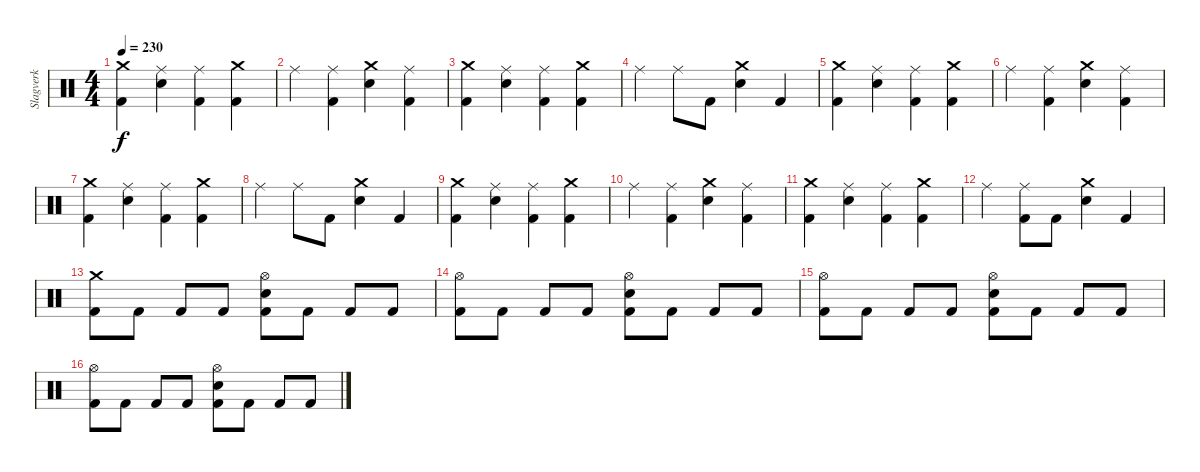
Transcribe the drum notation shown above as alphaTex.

\track ("Slagverk" "Slagverk") {instrument percussion}
\staff {score}
\articulation defaults
\ts (4 4)
\tempo 230
\clef neutral
\ks c
("Kick (hit) 2" "Crash medium (hit)").4{dy f} ("Snare (hit) 2" "Ride (middle)").4 ("Kick (hit) 2" "Ride (middle)").4 ("Kick (hit) 2" "Crash medium (hit)").4 |
"Ride (middle)".4 ("Kick (hit) 2" "Ride (middle)").4 ("Snare (hit) 2" "Crash medium (hit)").4 ("Kick (hit) 2" "Ride (middle)").4 |
("Kick (hit) 2" "Crash medium (hit)").4 ("Snare (hit) 2" "Ride (middle)").4 ("Kick (hit) 2" "Ride (middle)").4 ("Kick (hit) 2" "Crash medium (hit)").4 |
"Ride (middle)".4 "Ride (middle)".8 "Kick (hit) 2".8 ("Snare (hit) 2" "Crash medium (hit)").4 "Kick (hit) 2".4 |
("Kick (hit) 2" "Crash medium (hit)").4 ("Snare (hit) 2" "Ride (middle)").4 ("Kick (hit) 2" "Ride (middle)").4 ("Kick (hit) 2" "Crash medium (hit)").4 |
"Ride (middle)".4 ("Kick (hit) 2" "Ride (middle)").4 ("Snare (hit) 2" "Crash medium (hit)").4 ("Kick (hit) 2" "Ride (middle)").4 |
("Kick (hit) 2" "Crash medium (hit)").4 ("Snare (hit) 2" "Ride (middle)").4 ("Kick (hit) 2" "Ride (middle)").4 ("Kick (hit) 2" "Crash medium (hit)").4 |
"Ride (middle)".4 "Ride (middle)".8 "Kick (hit) 2".8 ("Snare (hit) 2" "Crash medium (hit)").4 "Kick (hit) 2".4 |
("Kick (hit) 2" "Crash medium (hit)").4 ("Snare (hit) 2" "Ride (middle)").4 ("Kick (hit) 2" "Ride (middle)").4 ("Kick (hit) 2" "Crash medium (hit)").4 |
"Ride (middle)".4 ("Kick (hit) 2" "Ride (middle)").4 ("Snare (hit) 2" "Crash medium (hit)").4 ("Kick (hit) 2" "Ride (middle)").4 |
("Kick (hit) 2" "Crash medium (hit)").4 ("Snare (hit) 2" "Ride (middle)").4 ("Kick (hit) 2" "Ride (middle)").4 ("Kick (hit) 2" "Crash medium (hit)").4 |
"Ride (middle)".4 ("Kick (hit) 2" "Ride (middle)").8 "Kick (hit) 2".8 ("Snare (hit) 2" "Crash medium (hit)").4 "Kick (hit) 2".4 |
("Crash medium (hit)" "Kick (hit) 2").8 "Kick (hit) 2".8 "Kick (hit) 2".8 "Kick (hit) 2".8 ("Hi-Hat (open)" "Kick (hit) 2" "Snare (hit) 2").8 "Kick (hit) 2".8 "Kick (hit) 2".8 "Kick (hit) 2".8 |
("Kick (hit) 2" "Hi-Hat (open)").8 "Kick (hit) 2".8 "Kick (hit) 2".8 "Kick (hit) 2".8 ("Hi-Hat (open)" "Kick (hit) 2" "Snare (hit) 2").8 "Kick (hit) 2".8 "Kick (hit) 2".8 "Kick (hit) 2".8 |
("Kick (hit) 2" "Hi-Hat (open)").8 "Kick (hit) 2".8 "Kick (hit) 2".8 "Kick (hit) 2".8 ("Hi-Hat (open)" "Kick (hit) 2" "Snare (hit) 2").8 "Kick (hit) 2".8 "Kick (hit) 2".8 "Kick (hit) 2".8 |
("Kick (hit) 2" "Hi-Hat (open)").8 "Kick (hit) 2".8 "Kick (hit) 2".8 "Kick (hit) 2".8 ("Hi-Hat (open)" "Kick (hit) 2" "Snare (hit) 2").8 "Kick (hit) 2".8 "Kick (hit) 2".8 "Kick (hit) 2".8
